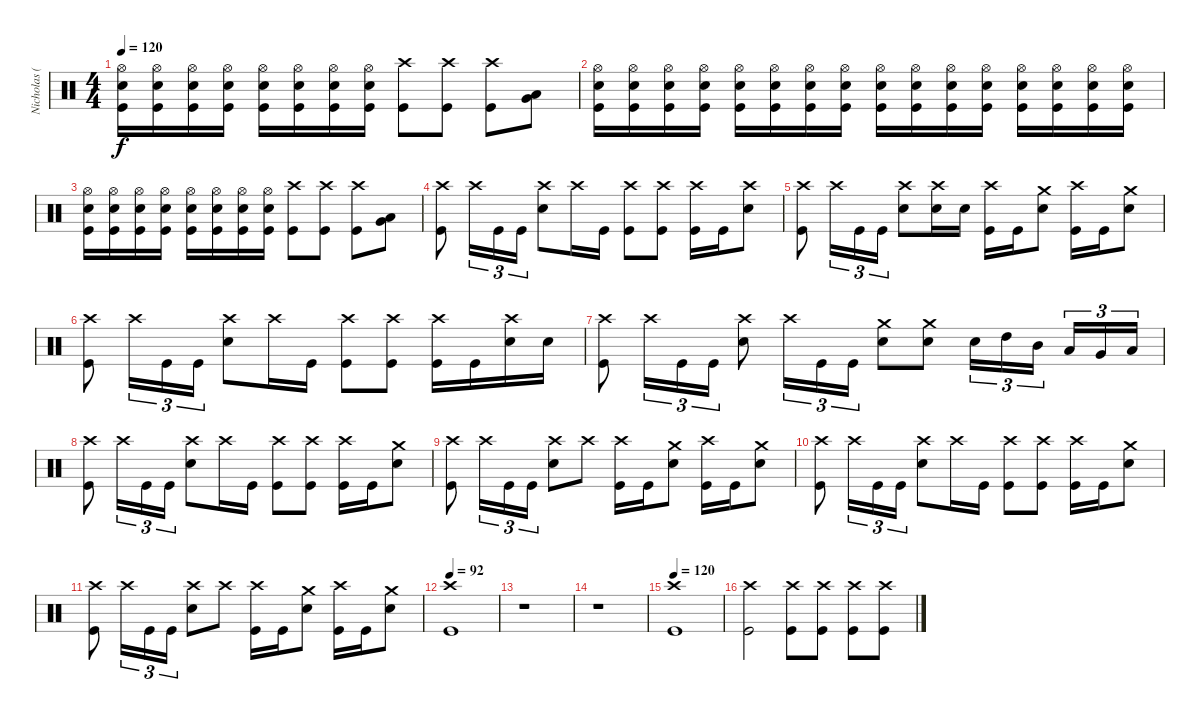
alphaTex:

\track ("Nicholas (Drums)" "Nicholas (") {instrument percussion}
\staff {score}
\articulation defaults
\ts (4 4)
\tempo 120
\clef neutral
\ks c
("Hi-Hat (open)" "Electric Snare (hit)" "Kick (hit)").16{dy f} ("Hi-Hat (open)" "Electric Snare (hit)" "Kick (hit)").16 ("Hi-Hat (open)" "Electric Snare (hit)" "Kick (hit)").16 ("Hi-Hat (open)" "Electric Snare (hit)" "Kick (hit)").16 ("Hi-Hat (open)" "Electric Snare (hit)" "Kick (hit)").16 ("Hi-Hat (open)" "Electric Snare (hit)" "Kick (hit)").16 ("Hi-Hat (open)" "Electric Snare (hit)" "Kick (hit)").16 ("Hi-Hat (open)" "Electric Snare (hit)" "Kick (hit)").16 ("Crash high (hit)" "Kick (hit)").8 ("Crash high (hit)" "Kick (hit)").8 ("Crash high (hit)" "Kick (hit)").8 ("Low Tom (hit)" "Very Low Tom (hit)").8{bu 60} |
("Hi-Hat (open)" "Electric Snare (hit)" "Kick (hit)").16 ("Hi-Hat (open)" "Electric Snare (hit)" "Kick (hit)").16 ("Hi-Hat (open)" "Electric Snare (hit)" "Kick (hit)").16 ("Hi-Hat (open)" "Electric Snare (hit)" "Kick (hit)").16 ("Hi-Hat (open)" "Electric Snare (hit)" "Kick (hit)").16 ("Hi-Hat (open)" "Electric Snare (hit)" "Kick (hit)").16 ("Hi-Hat (open)" "Electric Snare (hit)" "Kick (hit)").16 ("Hi-Hat (open)" "Electric Snare (hit)" "Kick (hit)").16 ("Hi-Hat (open)" "Electric Snare (hit)" "Kick (hit)").16 ("Hi-Hat (open)" "Electric Snare (hit)" "Kick (hit)").16 ("Hi-Hat (open)" "Electric Snare (hit)" "Kick (hit)").16 ("Hi-Hat (open)" "Electric Snare (hit)" "Kick (hit)").16 ("Hi-Hat (open)" "Electric Snare (hit)" "Kick (hit)").16 ("Hi-Hat (open)" "Electric Snare (hit)" "Kick (hit)").16 ("Hi-Hat (open)" "Electric Snare (hit)" "Kick (hit)").16 ("Hi-Hat (open)" "Electric Snare (hit)" "Kick (hit)").16 |
("Hi-Hat (open)" "Electric Snare (hit)" "Kick (hit)").16 ("Hi-Hat (open)" "Electric Snare (hit)" "Kick (hit)").16 ("Hi-Hat (open)" "Electric Snare (hit)" "Kick (hit)").16 ("Hi-Hat (open)" "Electric Snare (hit)" "Kick (hit)").16 ("Hi-Hat (open)" "Electric Snare (hit)" "Kick (hit)").16 ("Hi-Hat (open)" "Electric Snare (hit)" "Kick (hit)").16 ("Hi-Hat (open)" "Electric Snare (hit)" "Kick (hit)").16 ("Hi-Hat (open)" "Electric Snare (hit)" "Kick (hit)").16 ("Crash high (hit)" "Kick (hit)").8 ("Crash high (hit)" "Kick (hit)").8 ("Crash high (hit)" "Kick (hit)").8 ("Low Tom (hit)" "Very Low Tom (hit)").8{bu 60} |
("Crash high (hit)" "Kick (hit)").8 "Crash high (hit)".16{tu (3 2)} "Kick (hit)".16{tu (3 2)} "Kick (hit)".16{tu (3 2)} ("Crash high (hit)" "Electric Snare (hit)").8 "Crash high (hit)".16 "Kick (hit)".16 ("Crash high (hit)" "Kick (hit)").8 ("Crash high (hit)" "Kick (hit)").8 ("Crash high (hit)" "Kick (hit)").16 "Kick (hit)".16 ("Crash high (hit)" "Electric Snare (hit)").8 |
("Crash high (hit)" "Kick (hit)").8 "Crash high (hit)".16{tu (3 2)} "Kick (hit)".16{tu (3 2)} "Kick (hit)".16{tu (3 2)} ("Crash high (hit)" "Electric Snare (hit)").8 ("Crash high (hit)" "Electric Snare (hit)").16 "Electric Snare (hit)".16 ("Crash high (hit)" "Kick (hit)").16 "Kick (hit)".16 ("Crash medium (hit)" "Electric Snare (hit)").8 ("Crash high (hit)" "Kick (hit)").16 "Kick (hit)".16 ("Crash medium (hit)" "Electric Snare (hit)").8 |
("Crash high (hit)" "Kick (hit)").8 "Crash high (hit)".16{tu (3 2)} "Kick (hit)".16{tu (3 2)} "Kick (hit)".16{tu (3 2)} ("Crash high (hit)" "Electric Snare (hit)").8 "Crash high (hit)".16 "Kick (hit)".16 ("Crash high (hit)" "Kick (hit)").8 ("Crash high (hit)" "Kick (hit)").8 ("Crash high (hit)" "Kick (hit)").16 "Kick (hit)".16 ("Crash high (hit)" "Electric Snare (hit)").16 "Electric Snare (hit)".16 |
("Crash high (hit)" "Kick (hit)").8 "Crash high (hit)".16{tu (3 2)} "Kick (hit)".16{tu (3 2)} "Kick (hit)".16{tu (3 2)} ("Crash high (hit)" "Electric Snare (hit)").8 "Crash high (hit)".16{tu (3 2)} "Kick (hit)".16{tu (3 2)} "Kick (hit)".16{tu (3 2)} ("Crash medium (hit)" "Electric Snare (hit)").8 ("Crash medium (hit)" "Electric Snare (hit)").8 "Electric Snare (hit)".16{tu (3 2)} "High Tom (hit)".16{tu (3 2)} "Mid Tom (hit)".16{tu (3 2)} "Low Tom (hit)".16{tu (3 2)} "Very Low Tom (hit)".16{tu (3 2)} "Low Floor Tom (hit)".16{tu (3 2)} |
("Crash high (hit)" "Kick (hit)").8 "Crash high (hit)".16{tu (3 2)} "Kick (hit)".16{tu (3 2)} "Kick (hit)".16{tu (3 2)} ("Crash high (hit)" "Electric Snare (hit)").8 "Crash high (hit)".16 "Kick (hit)".16 ("Crash high (hit)" "Kick (hit)").8 ("Crash high (hit)" "Kick (hit)").8 ("Crash high (hit)" "Kick (hit)").16 "Kick (hit)".16 ("Crash medium (hit)" "Electric Snare (hit)").8 |
("Crash high (hit)" "Kick (hit)").8 "Crash high (hit)".16{tu (3 2)} "Kick (hit)".16{tu (3 2)} "Kick (hit)".16{tu (3 2)} ("Crash high (hit)" "Electric Snare (hit)").8 "Crash high (hit)".8 ("Crash high (hit)" "Kick (hit)").16 "Kick (hit)".16 ("Crash medium (hit)" "Electric Snare (hit)").8 ("Crash high (hit)" "Kick (hit)").16 "Kick (hit)".16 ("Crash medium (hit)" "Electric Snare (hit)").8 |
("Crash high (hit)" "Kick (hit)").8 "Crash high (hit)".16{tu (3 2)} "Kick (hit)".16{tu (3 2)} "Kick (hit)".16{tu (3 2)} ("Crash high (hit)" "Electric Snare (hit)").8 "Crash high (hit)".16 "Kick (hit)".16 ("Crash high (hit)" "Kick (hit)").8 ("Crash high (hit)" "Kick (hit)").8 ("Crash high (hit)" "Kick (hit)").16 "Kick (hit)".16 ("Crash medium (hit)" "Electric Snare (hit)").8 |
("Crash high (hit)" "Kick (hit)").8 "Crash high (hit)".16{tu (3 2)} "Kick (hit)".16{tu (3 2)} "Kick (hit)".16{tu (3 2)} ("Crash high (hit)" "Electric Snare (hit)").8 "Crash high (hit)".8 ("Crash high (hit)" "Kick (hit)").16 "Kick (hit)".16 ("Crash medium (hit)" "Electric Snare (hit)").8 ("Crash high (hit)" "Kick (hit)").16 "Kick (hit)".16 ("Crash medium (hit)" "Electric Snare (hit)").8 |
\tempo 92
("Crash high (hit)" "Kick (hit)").1 |
r.1 |
r.1 |
\tempo 120
("Crash high (hit)" "Kick (hit)").1 |
("Crash high (hit)" "Kick (hit)").2 ("Crash high (hit)" "Kick (hit)").8 ("Crash high (hit)" "Kick (hit)").8 ("Crash high (hit)" "Kick (hit)").8 ("Crash high (hit)" "Kick (hit)").8
